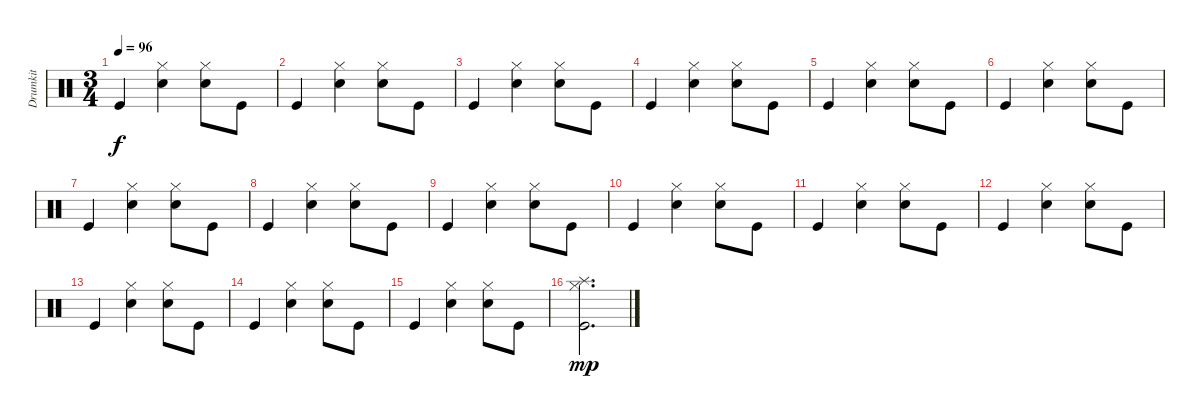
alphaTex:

\track ("Drumkit" "Drumkit") {instrument percussion}
\staff {score}
\articulation defaults
\ts (3 4)
\tempo 96
\clef neutral
\ks c "Kick (hit)".4{dy f}
("Hi-Hat (closed)" "Snare (hit) 2").4 ("Hi-Hat (closed)" "Snare (hit) 2").8 "Kick (hit)".8 |
"Kick (hit)".4 ("Hi-Hat (closed)" "Snare (hit) 2").4 ("Hi-Hat (closed)" "Snare (hit) 2").8 "Kick (hit)".8 |
"Kick (hit)".4 ("Hi-Hat (closed)" "Snare (hit) 2").4 ("Hi-Hat (closed)" "Snare (hit) 2").8 "Kick (hit)".8 |
"Kick (hit)".4 ("Hi-Hat (closed)" "Snare (hit) 2").4 ("Hi-Hat (closed)" "Snare (hit) 2").8 "Kick (hit)".8 |
"Kick (hit)".4 ("Hi-Hat (closed)" "Snare (hit) 2").4 ("Hi-Hat (closed)" "Snare (hit) 2").8 "Kick (hit)".8 |
"Kick (hit)".4 ("Hi-Hat (closed)" "Snare (hit) 2").4 ("Hi-Hat (closed)" "Snare (hit) 2").8 "Kick (hit)".8 |
"Kick (hit)".4 ("Hi-Hat (closed)" "Snare (hit) 2").4 ("Hi-Hat (closed)" "Snare (hit) 2").8 "Kick (hit)".8 |
"Kick (hit)".4 ("Hi-Hat (closed)" "Snare (hit) 2").4 ("Hi-Hat (closed)" "Snare (hit) 2").8 "Kick (hit)".8 |
"Kick (hit)".4 ("Hi-Hat (closed)" "Snare (hit) 2").4 ("Hi-Hat (closed)" "Snare (hit) 2").8 "Kick (hit)".8 |
"Kick (hit)".4 ("Hi-Hat (closed)" "Snare (hit) 2").4 ("Hi-Hat (closed)" "Snare (hit) 2").8 "Kick (hit)".8 |
"Kick (hit)".4 ("Hi-Hat (closed)" "Snare (hit) 2").4 ("Hi-Hat (closed)" "Snare (hit) 2").8 "Kick (hit)".8 |
"Kick (hit)".4 ("Hi-Hat (closed)" "Snare (hit) 2").4 ("Hi-Hat (closed)" "Snare (hit) 2").8 "Kick (hit)".8 |
"Kick (hit)".4 ("Hi-Hat (closed)" "Snare (hit) 2").4 ("Hi-Hat (closed)" "Snare (hit) 2").8 "Kick (hit)".8 |
"Kick (hit)".4 ("Hi-Hat (closed)" "Snare (hit) 2").4 ("Hi-Hat (closed)" "Snare (hit) 2").8 "Kick (hit)".8 |
"Kick (hit)".4 ("Hi-Hat (closed)" "Snare (hit) 2").4 ("Hi-Hat (closed)" "Snare (hit) 2").8 "Kick (hit)".8 |
("Hi-Hat (closed)" "Splash (hit)" "Kick (hit)").2{d dy mp}
